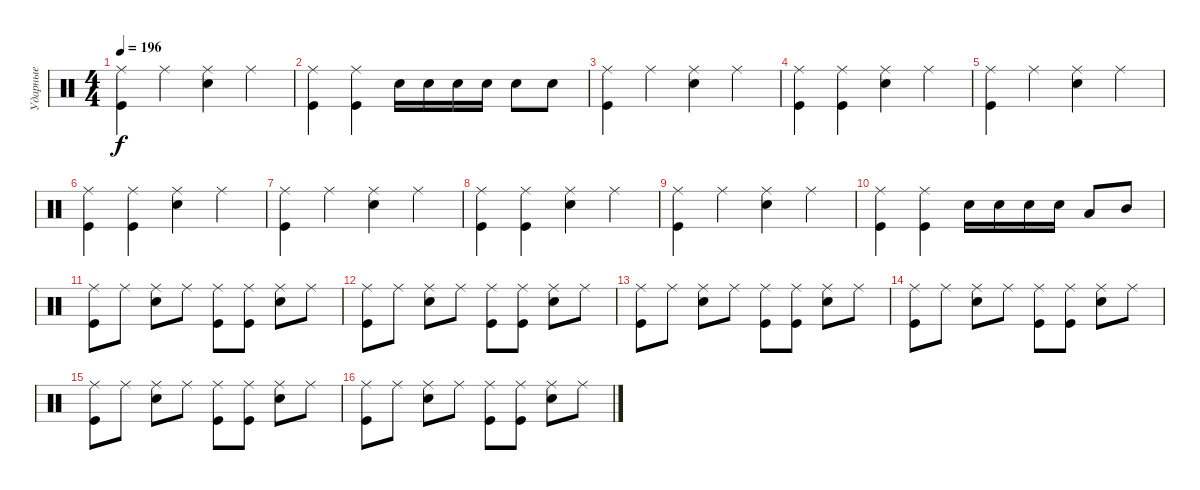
\track ("Ударные" "Ударные") {instrument percussion}
\staff {score}
\articulation defaults
\ts (4 4)
\tempo 196
\clef neutral
\ks c
("Ride (middle)" "Kick (hit)").4{dy f} "Ride (middle)".4 ("Ride (middle)" "Electric Snare (hit)").4 "Ride (middle)".4 |
("Ride (middle)" "Kick (hit)").4 ("Ride (middle)" "Kick (hit)").4 "Electric Snare (hit)".16 "Electric Snare (hit)".16 "Electric Snare (hit)".16 "Electric Snare (hit)".16 "Electric Snare (hit)".8 "Electric Snare (hit)".8 |
("Ride (middle)" "Kick (hit)").4 "Ride (middle)".4 ("Ride (middle)" "Electric Snare (hit)").4 "Ride (middle)".4 |
("Ride (middle)" "Kick (hit)").4 ("Ride (middle)" "Kick (hit)").4 ("Ride (middle)" "Electric Snare (hit)").4 "Ride (middle)".4 |
("Ride (middle)" "Kick (hit)").4 "Ride (middle)".4 ("Ride (middle)" "Electric Snare (hit)").4 "Ride (middle)".4 |
("Ride (middle)" "Kick (hit)").4 ("Ride (middle)" "Kick (hit)").4 ("Ride (middle)" "Electric Snare (hit)").4 "Ride (middle)".4 |
("Ride (middle)" "Kick (hit)").4 "Ride (middle)".4 ("Ride (middle)" "Electric Snare (hit)").4 "Ride (middle)".4 |
("Ride (middle)" "Kick (hit)").4 ("Ride (middle)" "Kick (hit)").4 ("Ride (middle)" "Electric Snare (hit)").4 "Ride (middle)".4 |
("Ride (middle)" "Kick (hit)").4 "Ride (middle)".4 ("Ride (middle)" "Electric Snare (hit)").4 "Ride (middle)".4 |
("Ride (middle)" "Kick (hit)").4 ("Ride (middle)" "Kick (hit)").4 "Electric Snare (hit)".16 "Electric Snare (hit)".16 "Electric Snare (hit)".16 "Electric Snare (hit)".16 "Low Tom (hit)".8 "Mid Tom (hit)".8 |
("Ride (middle)" "Kick (hit)").8 "Ride (middle)".8 ("Ride (middle)" "Electric Snare (hit)").8 "Ride (middle)".8 ("Ride (middle)" "Kick (hit)").8 ("Ride (middle)" "Kick (hit)").8 ("Ride (middle)" "Electric Snare (hit)").8 "Ride (middle)".8 |
("Ride (middle)" "Kick (hit)").8 "Ride (middle)".8 ("Ride (middle)" "Electric Snare (hit)").8 "Ride (middle)".8 ("Ride (middle)" "Kick (hit)").8 ("Ride (middle)" "Kick (hit)").8 ("Ride (middle)" "Electric Snare (hit)").8 "Ride (middle)".8 |
("Ride (middle)" "Kick (hit)").8 "Ride (middle)".8 ("Ride (middle)" "Electric Snare (hit)").8 "Ride (middle)".8 ("Ride (middle)" "Kick (hit)").8 ("Ride (middle)" "Kick (hit)").8 ("Ride (middle)" "Electric Snare (hit)").8 "Ride (middle)".8 |
("Ride (middle)" "Kick (hit)").8 "Ride (middle)".8 ("Ride (middle)" "Electric Snare (hit)").8 "Ride (middle)".8 ("Ride (middle)" "Kick (hit)").8 ("Ride (middle)" "Kick (hit)").8 ("Ride (middle)" "Electric Snare (hit)").8 "Ride (middle)".8 |
("Ride (middle)" "Kick (hit)").8 "Ride (middle)".8 ("Ride (middle)" "Electric Snare (hit)").8 "Ride (middle)".8 ("Ride (middle)" "Kick (hit)").8 ("Ride (middle)" "Kick (hit)").8 ("Ride (middle)" "Electric Snare (hit)").8 "Ride (middle)".8 |
("Ride (middle)" "Kick (hit)").8 "Ride (middle)".8 ("Ride (middle)" "Electric Snare (hit)").8 "Ride (middle)".8 ("Ride (middle)" "Kick (hit)").8 ("Ride (middle)" "Kick (hit)").8 ("Ride (middle)" "Electric Snare (hit)").8 "Ride (middle)".8
